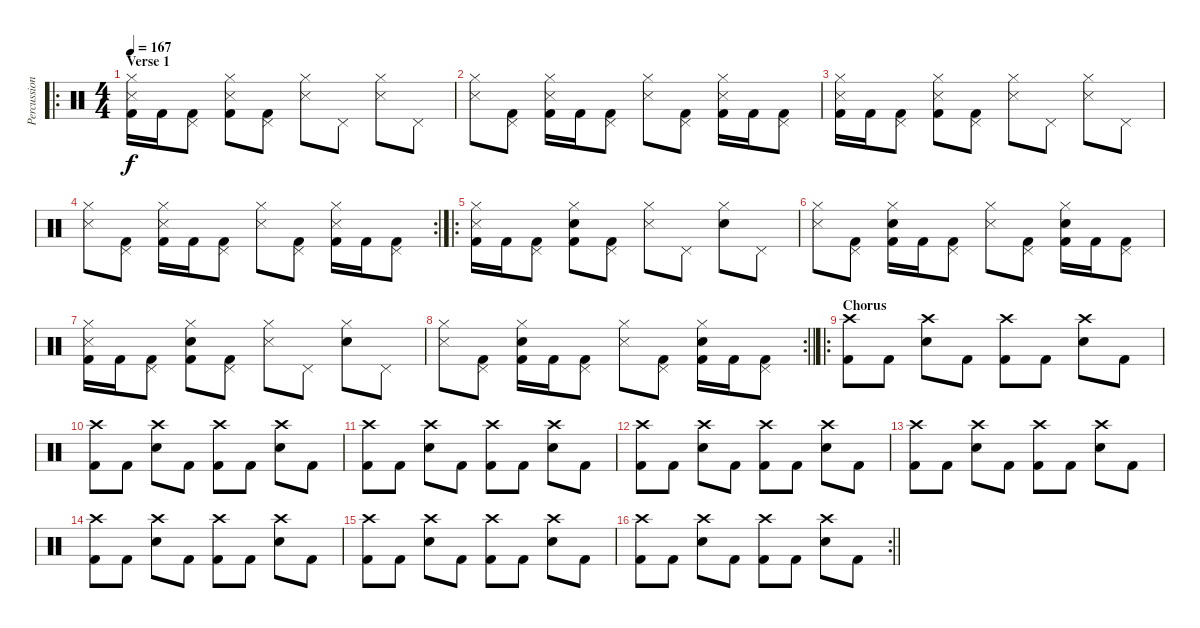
\track ("Percussion" "Percussion") {instrument percussion}
\staff {score}
\articulation defaults
\ro
\ts (4 4)
\section ("" "Verse 1")
\tempo 167
\clef neutral
\ks c
("Hi-Hat (closed)" "Snare (side stick) 3" "Kick (hit) 2").16{dy f} "Kick (hit) 2".16 ("Pedal Hi-Hat (hit)" "Kick (hit) 2").8 ("Hi-Hat (closed)" "Snare (side stick) 3" "Kick (hit) 2").8 ("Pedal Hi-Hat (hit)" "Kick (hit) 2").8 ("Hi-Hat (closed)" "Snare (side stick) 3").8 "Pedal Hi-Hat (hit)".8 ("Hi-Hat (closed)" "Snare (side stick) 3").8 "Pedal Hi-Hat (hit)".8 |
("Hi-Hat (closed)" "Snare (side stick) 3").8 ("Pedal Hi-Hat (hit)" "Kick (hit) 2").8 ("Hi-Hat (closed)" "Snare (side stick) 3" "Kick (hit) 2").16 "Kick (hit) 2".16 ("Pedal Hi-Hat (hit)" "Kick (hit) 2").8 ("Hi-Hat (closed)" "Snare (side stick) 3").8 ("Pedal Hi-Hat (hit)" "Kick (hit) 2").8 ("Hi-Hat (closed)" "Snare (side stick) 3" "Kick (hit) 2").16 "Kick (hit) 2".16 ("Pedal Hi-Hat (hit)" "Kick (hit) 2").8 |
("Hi-Hat (closed)" "Snare (side stick) 3" "Kick (hit) 2").16 "Kick (hit) 2".16 ("Pedal Hi-Hat (hit)" "Kick (hit) 2").8 ("Hi-Hat (closed)" "Snare (side stick) 3" "Kick (hit) 2").8 ("Pedal Hi-Hat (hit)" "Kick (hit) 2").8 ("Hi-Hat (closed)" "Snare (side stick) 3").8 "Pedal Hi-Hat (hit)".8 ("Hi-Hat (closed)" "Snare (side stick) 3").8 "Pedal Hi-Hat (hit)".8 |
\rc 2
("Hi-Hat (closed)" "Snare (side stick) 3").8 ("Pedal Hi-Hat (hit)" "Kick (hit) 2").8 ("Hi-Hat (closed)" "Snare (side stick) 3" "Kick (hit) 2").16 "Kick (hit) 2".16 ("Pedal Hi-Hat (hit)" "Kick (hit) 2").8 ("Hi-Hat (closed)" "Snare (side stick) 3").8 ("Pedal Hi-Hat (hit)" "Kick (hit) 2").8 ("Hi-Hat (closed)" "Snare (side stick) 3" "Kick (hit) 2").16 "Kick (hit) 2".16 ("Pedal Hi-Hat (hit)" "Kick (hit) 2").8 |
\ro
("Hi-Hat (closed)" "Snare (side stick) 3" "Kick (hit) 2").16 "Kick (hit) 2".16 ("Pedal Hi-Hat (hit)" "Kick (hit) 2").8 ("Hi-Hat (closed)" "Electric Snare (hit)" "Kick (hit) 2").8 ("Pedal Hi-Hat (hit)" "Kick (hit) 2").8 ("Hi-Hat (closed)" "Snare (side stick) 3").8 "Pedal Hi-Hat (hit)".8 ("Hi-Hat (closed)" "Electric Snare (hit)").8 "Pedal Hi-Hat (hit)".8 |
("Hi-Hat (closed)" "Snare (side stick) 3").8 ("Pedal Hi-Hat (hit)" "Kick (hit) 2").8 ("Hi-Hat (closed)" "Electric Snare (hit)" "Kick (hit) 2").16 "Kick (hit) 2".16 ("Pedal Hi-Hat (hit)" "Kick (hit) 2").8 ("Hi-Hat (closed)" "Snare (side stick) 3").8 ("Pedal Hi-Hat (hit)" "Kick (hit) 2").8 ("Hi-Hat (closed)" "Electric Snare (hit)" "Kick (hit) 2").16 "Kick (hit) 2".16 ("Pedal Hi-Hat (hit)" "Kick (hit) 2").8 |
("Hi-Hat (closed)" "Snare (side stick) 3" "Kick (hit) 2").16 "Kick (hit) 2".16 ("Pedal Hi-Hat (hit)" "Kick (hit) 2").8 ("Hi-Hat (closed)" "Electric Snare (hit)" "Kick (hit) 2").8 ("Pedal Hi-Hat (hit)" "Kick (hit) 2").8 ("Hi-Hat (closed)" "Snare (side stick) 3").8 "Pedal Hi-Hat (hit)".8 ("Hi-Hat (closed)" "Electric Snare (hit)").8 "Pedal Hi-Hat (hit)".8 |
\rc 2
\barLineRight lightlight
("Hi-Hat (closed)" "Snare (side stick) 3").8 ("Pedal Hi-Hat (hit)" "Kick (hit) 2").8 ("Hi-Hat (closed)" "Electric Snare (hit)" "Kick (hit) 2").16 "Kick (hit) 2".16 ("Pedal Hi-Hat (hit)" "Kick (hit) 2").8 ("Hi-Hat (closed)" "Snare (side stick) 3").8 ("Pedal Hi-Hat (hit)" "Kick (hit) 2").8 ("Hi-Hat (closed)" "Electric Snare (hit)" "Kick (hit) 2").16 "Kick (hit) 2".16 ("Pedal Hi-Hat (hit)" "Kick (hit) 2").8 |
\ro
\section ("" "Chorus")
("Crash high (hit)" "Kick (hit) 2").8 "Kick (hit) 2".8 ("Crash high (hit)" "Electric Snare (hit)").8 "Kick (hit) 2".8 ("Crash high (hit)" "Kick (hit) 2").8 "Kick (hit) 2".8 ("Crash high (hit)" "Electric Snare (hit)").8 "Kick (hit) 2".8 |
("Crash high (hit)" "Kick (hit) 2").8 "Kick (hit) 2".8 ("Crash high (hit)" "Electric Snare (hit)").8 "Kick (hit) 2".8 ("Crash high (hit)" "Kick (hit) 2").8 "Kick (hit) 2".8 ("Crash high (hit)" "Electric Snare (hit)").8 "Kick (hit) 2".8 |
("Crash high (hit)" "Kick (hit) 2").8 "Kick (hit) 2".8 ("Crash high (hit)" "Electric Snare (hit)").8 "Kick (hit) 2".8 ("Crash high (hit)" "Kick (hit) 2").8 "Kick (hit) 2".8 ("Crash high (hit)" "Electric Snare (hit)").8 "Kick (hit) 2".8 |
("Crash high (hit)" "Kick (hit) 2").8 "Kick (hit) 2".8 ("Crash high (hit)" "Electric Snare (hit)").8 "Kick (hit) 2".8 ("Crash high (hit)" "Kick (hit) 2").8 "Kick (hit) 2".8 ("Crash high (hit)" "Electric Snare (hit)").8 "Kick (hit) 2".8 |
("Crash high (hit)" "Kick (hit) 2").8 "Kick (hit) 2".8 ("Crash high (hit)" "Electric Snare (hit)").8 "Kick (hit) 2".8 ("Crash high (hit)" "Kick (hit) 2").8 "Kick (hit) 2".8 ("Crash high (hit)" "Electric Snare (hit)").8 "Kick (hit) 2".8 |
("Crash high (hit)" "Kick (hit) 2").8 "Kick (hit) 2".8 ("Crash high (hit)" "Electric Snare (hit)").8 "Kick (hit) 2".8 ("Crash high (hit)" "Kick (hit) 2").8 "Kick (hit) 2".8 ("Crash high (hit)" "Electric Snare (hit)").8 "Kick (hit) 2".8 |
("Crash high (hit)" "Kick (hit) 2").8 "Kick (hit) 2".8 ("Crash high (hit)" "Electric Snare (hit)").8 "Kick (hit) 2".8 ("Crash high (hit)" "Kick (hit) 2").8 "Kick (hit) 2".8 ("Crash high (hit)" "Electric Snare (hit)").8 "Kick (hit) 2".8 |
\rc 2
\barLineRight lightlight
("Crash high (hit)" "Kick (hit) 2").8 "Kick (hit) 2".8 ("Crash high (hit)" "Electric Snare (hit)").8 "Kick (hit) 2".8 ("Crash high (hit)" "Kick (hit) 2").8 "Kick (hit) 2".8 ("Crash high (hit)" "Electric Snare (hit)").8 "Kick (hit) 2".8
